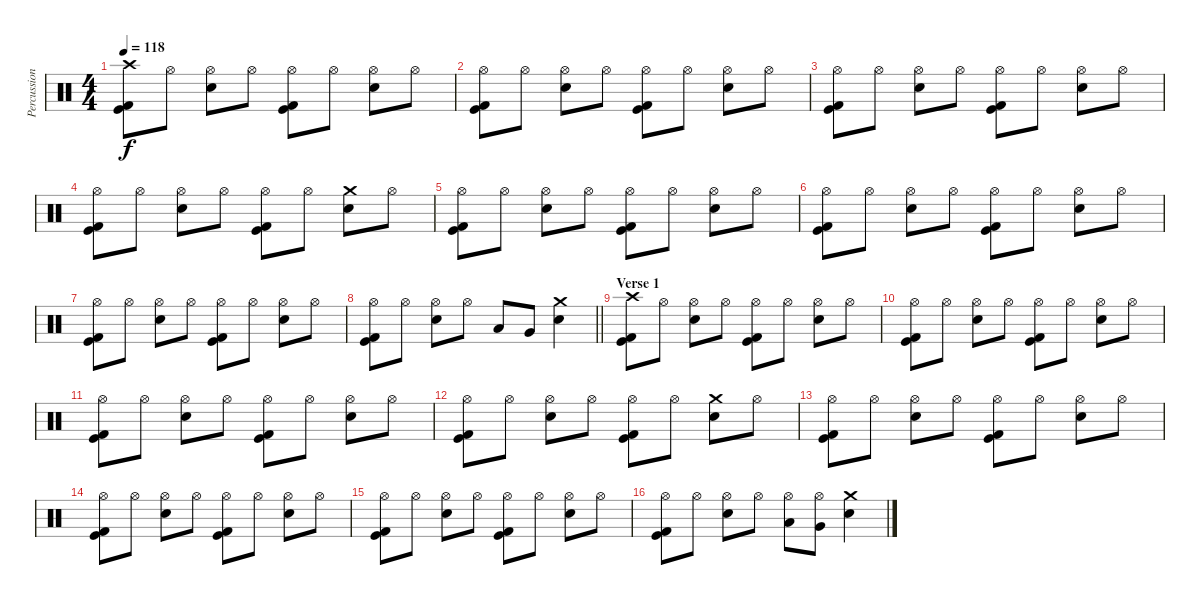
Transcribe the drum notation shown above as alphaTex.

\track ("Percussion" "Percussion") {instrument percussion}
\staff {score}
\articulation defaults
\ts (4 4)
\section ("" "")
\tempo 118
\clef neutral
\ks c
("Crash high (hit)" "Kick (hit)" "Kick (hit) 2").8{dy f} "Hi-Hat (open)".8 ("Hi-Hat (open)" "Electric Snare (hit)").8 "Hi-Hat (open)".8 ("Hi-Hat (open)" "Kick (hit)" "Kick (hit) 2").8 "Hi-Hat (open)".8 ("Hi-Hat (open)" "Electric Snare (hit)").8 "Hi-Hat (open)".8 |
("Hi-Hat (open)" "Kick (hit)" "Kick (hit) 2").8 "Hi-Hat (open)".8 ("Hi-Hat (open)" "Electric Snare (hit)").8 "Hi-Hat (open)".8 ("Hi-Hat (open)" "Kick (hit)" "Kick (hit) 2").8 "Hi-Hat (open)".8 ("Hi-Hat (open)" "Electric Snare (hit)").8 "Hi-Hat (open)".8 |
("Hi-Hat (open)" "Kick (hit)" "Kick (hit) 2").8 "Hi-Hat (open)".8 ("Hi-Hat (open)" "Electric Snare (hit)").8 "Hi-Hat (open)".8 ("Hi-Hat (open)" "Kick (hit)" "Kick (hit) 2").8 "Hi-Hat (open)".8 ("Hi-Hat (open)" "Electric Snare (hit)").8 "Hi-Hat (open)".8 |
("Hi-Hat (open)" "Kick (hit)" "Kick (hit) 2").8 "Hi-Hat (open)".8 ("Hi-Hat (open)" "Electric Snare (hit)").8 "Hi-Hat (open)".8 ("Hi-Hat (open)" "Kick (hit)" "Kick (hit) 2").8 "Hi-Hat (open)".8 ("Crash medium (hit)" "Electric Snare (hit)").8 "Hi-Hat (open)".8 |
("Hi-Hat (open)" "Kick (hit)" "Kick (hit) 2").8 "Hi-Hat (open)".8 ("Hi-Hat (open)" "Electric Snare (hit)").8 "Hi-Hat (open)".8 ("Hi-Hat (open)" "Kick (hit)" "Kick (hit) 2").8 "Hi-Hat (open)".8 ("Hi-Hat (open)" "Electric Snare (hit)").8 "Hi-Hat (open)".8 |
("Hi-Hat (open)" "Kick (hit)" "Kick (hit) 2").8 "Hi-Hat (open)".8 ("Hi-Hat (open)" "Electric Snare (hit)").8 "Hi-Hat (open)".8 ("Hi-Hat (open)" "Kick (hit)" "Kick (hit) 2").8 "Hi-Hat (open)".8 ("Hi-Hat (open)" "Electric Snare (hit)").8 "Hi-Hat (open)".8 |
("Hi-Hat (open)" "Kick (hit)" "Kick (hit) 2").8 "Hi-Hat (open)".8 ("Hi-Hat (open)" "Electric Snare (hit)").8 "Hi-Hat (open)".8 ("Hi-Hat (open)" "Kick (hit)" "Kick (hit) 2").8 "Hi-Hat (open)".8 ("Hi-Hat (open)" "Electric Snare (hit)").8 "Hi-Hat (open)".8 |
\barLineRight lightlight
("Hi-Hat (open)" "Kick (hit)" "Kick (hit) 2").8 "Hi-Hat (open)".8 ("Hi-Hat (open)" "Electric Snare (hit)").8 "Hi-Hat (open)".8 "Low Tom (hit)".8 "Very Low Tom (hit)".8 ("Crash medium (hit)" "Electric Snare (hit)").4 |
\section ("" "Verse 1")
("Crash high (hit)" "Kick (hit)" "Kick (hit) 2").8 "Hi-Hat (open)".8 ("Hi-Hat (open)" "Electric Snare (hit)").8 "Hi-Hat (open)".8 ("Hi-Hat (open)" "Kick (hit)" "Kick (hit) 2").8 "Hi-Hat (open)".8 ("Hi-Hat (open)" "Electric Snare (hit)").8 "Hi-Hat (open)".8 |
("Hi-Hat (open)" "Kick (hit)" "Kick (hit) 2").8 "Hi-Hat (open)".8 ("Hi-Hat (open)" "Electric Snare (hit)").8 "Hi-Hat (open)".8 ("Hi-Hat (open)" "Kick (hit)" "Kick (hit) 2").8 "Hi-Hat (open)".8 ("Hi-Hat (open)" "Electric Snare (hit)").8 "Hi-Hat (open)".8 |
("Hi-Hat (open)" "Kick (hit)" "Kick (hit) 2").8 "Hi-Hat (open)".8 ("Hi-Hat (open)" "Electric Snare (hit)").8 "Hi-Hat (open)".8 ("Hi-Hat (open)" "Kick (hit)" "Kick (hit) 2").8 "Hi-Hat (open)".8 ("Hi-Hat (open)" "Electric Snare (hit)").8 "Hi-Hat (open)".8 |
("Hi-Hat (open)" "Kick (hit)" "Kick (hit) 2").8 "Hi-Hat (open)".8 ("Hi-Hat (open)" "Electric Snare (hit)").8 "Hi-Hat (open)".8 ("Hi-Hat (open)" "Kick (hit)" "Kick (hit) 2").8 "Hi-Hat (open)".8 ("Crash medium (hit)" "Electric Snare (hit)").8 "Hi-Hat (open)".8 |
("Hi-Hat (open)" "Kick (hit)" "Kick (hit) 2").8 "Hi-Hat (open)".8 ("Hi-Hat (open)" "Electric Snare (hit)").8 "Hi-Hat (open)".8 ("Hi-Hat (open)" "Kick (hit)" "Kick (hit) 2").8 "Hi-Hat (open)".8 ("Hi-Hat (open)" "Electric Snare (hit)").8 "Hi-Hat (open)".8 |
("Hi-Hat (open)" "Kick (hit)" "Kick (hit) 2").8 "Hi-Hat (open)".8 ("Hi-Hat (open)" "Electric Snare (hit)").8 "Hi-Hat (open)".8 ("Hi-Hat (open)" "Kick (hit)" "Kick (hit) 2").8 "Hi-Hat (open)".8 ("Hi-Hat (open)" "Electric Snare (hit)").8 "Hi-Hat (open)".8 |
("Hi-Hat (open)" "Kick (hit)" "Kick (hit) 2").8 "Hi-Hat (open)".8 ("Hi-Hat (open)" "Electric Snare (hit)").8 "Hi-Hat (open)".8 ("Hi-Hat (open)" "Kick (hit)" "Kick (hit) 2").8 "Hi-Hat (open)".8 ("Hi-Hat (open)" "Electric Snare (hit)").8 "Hi-Hat (open)".8 |
("Hi-Hat (open)" "Kick (hit)" "Kick (hit) 2").8 "Hi-Hat (open)".8 ("Hi-Hat (open)" "Electric Snare (hit)").8 "Hi-Hat (open)".8 ("Hi-Hat (open)" "Low Tom (hit)").8 ("Hi-Hat (open)" "Very Low Tom (hit)").8 ("Crash medium (hit)" "Electric Snare (hit)").4
